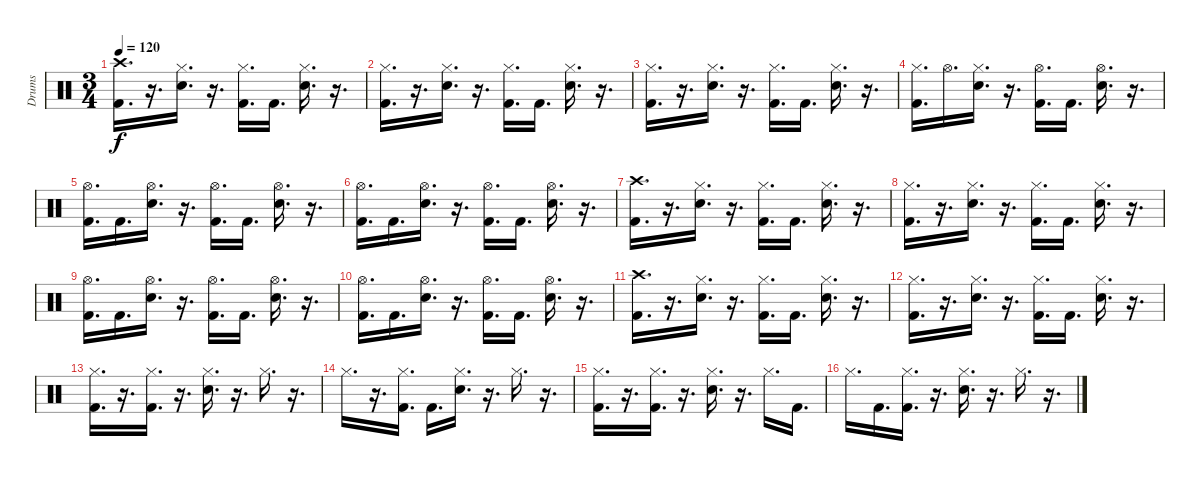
\track ("Drums" "Drums") {instrument percussion}
\staff {score}
\articulation defaults
\ts (3 4)
\tempo 120
\clef neutral
\ks c
("Crash high (hit)" "Kick (hit) 2").16{d dy f} r.16{d} ("Hi-Hat (closed)" "Electric Snare (hit)").16{d} r.16{d} ("Hi-Hat (closed)" "Kick (hit) 2").16{d} "Kick (hit) 2".16{d} ("Hi-Hat (closed)" "Electric Snare (hit)").16{d} r.16{d} |
("Hi-Hat (closed)" "Kick (hit) 2").16{d} r.16{d} ("Hi-Hat (closed)" "Electric Snare (hit)").16{d} r.16{d} ("Hi-Hat (closed)" "Kick (hit) 2").16{d} "Kick (hit) 2".16{d} ("Hi-Hat (closed)" "Electric Snare (hit)").16{d} r.16{d} |
("Hi-Hat (closed)" "Kick (hit) 2").16{d} r.16{d} ("Hi-Hat (closed)" "Electric Snare (hit)").16{d} r.16{d} ("Hi-Hat (closed)" "Kick (hit) 2").16{d} "Kick (hit) 2".16{d} ("Hi-Hat (closed)" "Electric Snare (hit)").16{d} r.16{d} |
("Hi-Hat (closed)" "Kick (hit) 2").16{d} "Hi-Hat (open)".16{d} ("Hi-Hat (closed)" "Electric Snare (hit)").16{d} r.16{d} ("Hi-Hat (open)" "Kick (hit) 2").16{d} "Kick (hit) 2".16{d} ("Hi-Hat (open)" "Electric Snare (hit)").16{d} r.16{d} |
("Hi-Hat (open)" "Kick (hit) 2").16{d} "Kick (hit) 2".16{d} ("Hi-Hat (open)" "Electric Snare (hit)").16{d} r.16{d} ("Hi-Hat (open)" "Kick (hit) 2").16{d} "Kick (hit) 2".16{d} ("Hi-Hat (open)" "Electric Snare (hit)").16{d} r.16{d} |
("Hi-Hat (open)" "Kick (hit) 2").16{d} "Kick (hit) 2".16{d} ("Hi-Hat (open)" "Electric Snare (hit)").16{d} r.16{d} ("Hi-Hat (open)" "Kick (hit) 2").16{d} "Kick (hit) 2".16{d} ("Hi-Hat (open)" "Electric Snare (hit)").16{d} r.16{d} |
("Crash high (hit)" "Kick (hit) 2").16{d} r.16{d} ("Hi-Hat (closed)" "Electric Snare (hit)").16{d} r.16{d} ("Hi-Hat (closed)" "Kick (hit) 2").16{d} "Kick (hit) 2".16{d} ("Hi-Hat (closed)" "Electric Snare (hit)").16{d} r.16{d} |
("Hi-Hat (closed)" "Kick (hit) 2").16{d} r.16{d} ("Hi-Hat (closed)" "Electric Snare (hit)").16{d} r.16{d} ("Hi-Hat (closed)" "Kick (hit) 2").16{d} "Kick (hit) 2".16{d} ("Hi-Hat (closed)" "Electric Snare (hit)").16{d} r.16{d} |
("Hi-Hat (open)" "Kick (hit) 2").16{d} "Kick (hit) 2".16{d} ("Hi-Hat (open)" "Electric Snare (hit)").16{d} r.16{d} ("Hi-Hat (open)" "Kick (hit) 2").16{d} "Kick (hit) 2".16{d} ("Hi-Hat (open)" "Electric Snare (hit)").16{d} r.16{d} |
("Hi-Hat (open)" "Kick (hit) 2").16{d} "Kick (hit) 2".16{d} ("Hi-Hat (open)" "Electric Snare (hit)").16{d} r.16{d} ("Hi-Hat (open)" "Kick (hit) 2").16{d} "Kick (hit) 2".16{d} ("Hi-Hat (open)" "Electric Snare (hit)").16{d} r.16{d} |
("Crash high (hit)" "Kick (hit) 2").16{d} r.16{d} ("Hi-Hat (closed)" "Electric Snare (hit)").16{d} r.16{d} ("Hi-Hat (closed)" "Kick (hit) 2").16{d} "Kick (hit) 2".16{d} ("Hi-Hat (closed)" "Electric Snare (hit)").16{d} r.16{d} |
("Hi-Hat (closed)" "Kick (hit) 2").16{d} r.16{d} ("Hi-Hat (closed)" "Electric Snare (hit)").16{d} r.16{d} ("Hi-Hat (closed)" "Kick (hit) 2").16{d} "Kick (hit) 2".16{d} ("Hi-Hat (closed)" "Electric Snare (hit)").16{d} r.16{d} |
("Hi-Hat (closed)" "Kick (hit) 2").16{d} r.16{d} ("Hi-Hat (closed)" "Kick (hit) 2").16{d} r.16{d} ("Hi-Hat (closed)" "Electric Snare (hit)").16{d} r.16{d} "Hi-Hat (closed)".16{d} r.16{d} |
"Hi-Hat (closed)".16{d} r.16{d} ("Hi-Hat (closed)" "Kick (hit) 2").16{d} "Kick (hit) 2".16{d} ("Hi-Hat (closed)" "Electric Snare (hit)").16{d} r.16{d} "Hi-Hat (closed)".16{d} r.16{d} |
("Hi-Hat (closed)" "Kick (hit) 2").16{d} r.16{d} ("Hi-Hat (closed)" "Kick (hit) 2").16{d} r.16{d} ("Hi-Hat (closed)" "Electric Snare (hit)").16{d} r.16{d} "Hi-Hat (closed)".16{d} "Kick (hit) 2".16{d} |
"Hi-Hat (closed)".16{d} "Kick (hit) 2".16{d} ("Hi-Hat (closed)" "Kick (hit) 2").16{d} r.16{d} ("Hi-Hat (closed)" "Electric Snare (hit)").16{d} r.16{d} "Hi-Hat (closed)".16{d} r.16{d}
